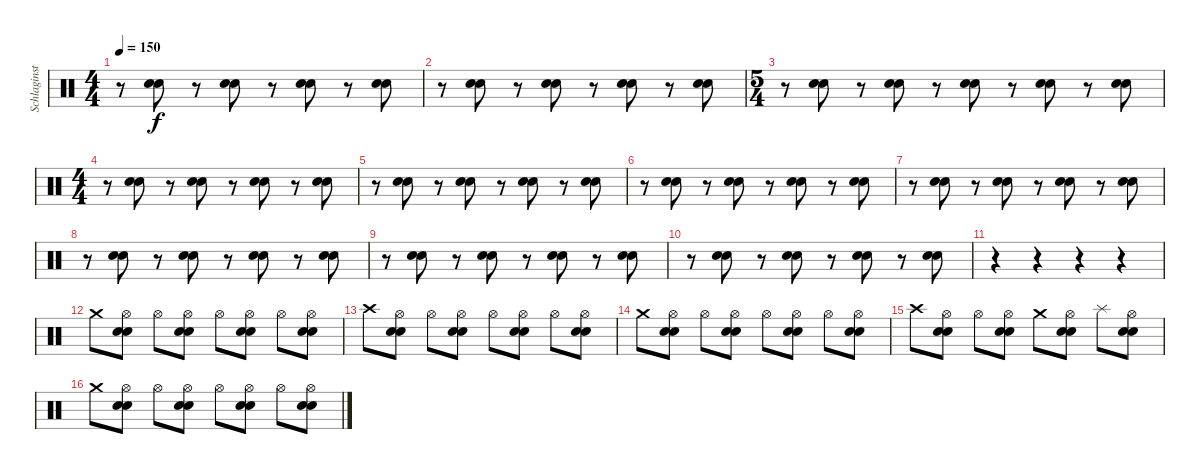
\track ("Schlaginstrumente - Auswahl" "Schlaginst") {instrument percussion}
\staff {score}
\articulation defaults
\ts (4 4)
\tempo 150
\clef neutral
\ks c
r.8{dy f} ("Electric Snare (hit)" "Electric Snare (hit)").8 r.8 ("Electric Snare (hit)" "Electric Snare (hit)").8 r.8 ("Electric Snare (hit)" "Electric Snare (hit)").8 r.8 ("Electric Snare (hit)" "Electric Snare (hit)").8 |
r.8 ("Electric Snare (hit)" "Electric Snare (hit)").8 r.8 ("Electric Snare (hit)" "Electric Snare (hit)").8 r.8 ("Electric Snare (hit)" "Electric Snare (hit)").8 r.8 ("Electric Snare (hit)" "Electric Snare (hit)").8 |
\ts (5 4)
r.8 ("Electric Snare (hit)" "Electric Snare (hit)").8 r.8 ("Electric Snare (hit)" "Electric Snare (hit)").8 r.8 ("Electric Snare (hit)" "Electric Snare (hit)").8 r.8 ("Electric Snare (hit)" "Electric Snare (hit)").8 r.8 ("Electric Snare (hit)" "Electric Snare (hit)").8 |
\ts (4 4)
r.8 ("Electric Snare (hit)" "Electric Snare (hit)").8 r.8 ("Electric Snare (hit)" "Electric Snare (hit)").8 r.8 ("Electric Snare (hit)" "Electric Snare (hit)").8 r.8 ("Electric Snare (hit)" "Electric Snare (hit)").8 |
r.8 ("Electric Snare (hit)" "Electric Snare (hit)").8 r.8 ("Electric Snare (hit)" "Electric Snare (hit)").8 r.8 ("Electric Snare (hit)" "Electric Snare (hit)").8 r.8 ("Electric Snare (hit)" "Electric Snare (hit)").8 |
r.8 ("Electric Snare (hit)" "Electric Snare (hit)").8 r.8 ("Electric Snare (hit)" "Electric Snare (hit)").8 r.8 ("Electric Snare (hit)" "Electric Snare (hit)").8 r.8 ("Electric Snare (hit)" "Electric Snare (hit)").8 |
r.8 ("Electric Snare (hit)" "Electric Snare (hit)").8 r.8 ("Electric Snare (hit)" "Electric Snare (hit)").8 r.8 ("Electric Snare (hit)" "Electric Snare (hit)").8 r.8 ("Electric Snare (hit)" "Electric Snare (hit)").8 |
r.8 ("Electric Snare (hit)" "Electric Snare (hit)").8 r.8 ("Electric Snare (hit)" "Electric Snare (hit)").8 r.8 ("Electric Snare (hit)" "Electric Snare (hit)").8 r.8 ("Electric Snare (hit)" "Electric Snare (hit)").8 |
r.8 ("Electric Snare (hit)" "Electric Snare (hit)").8 r.8 ("Electric Snare (hit)" "Electric Snare (hit)").8 r.8 ("Electric Snare (hit)" "Electric Snare (hit)").8 r.8 ("Electric Snare (hit)" "Electric Snare (hit)").8 |
r.8 ("Electric Snare (hit)" "Electric Snare (hit)").8 r.8 ("Electric Snare (hit)" "Electric Snare (hit)").8 r.8 ("Electric Snare (hit)" "Electric Snare (hit)").8 r.8 ("Electric Snare (hit)" "Electric Snare (hit)").8 |
r.4 r.4 r.4 r.4 |
"Crash medium (hit)".8 ("Hi-Hat (open)" "Electric Snare (hit)" "Electric Snare (hit)").8 "Hi-Hat (open)".8 ("Hi-Hat (open)" "Electric Snare (hit)" "Electric Snare (hit)").8 "Hi-Hat (open)".8 ("Hi-Hat (open)" "Electric Snare (hit)" "Electric Snare (hit)").8 "Hi-Hat (open)".8 ("Hi-Hat (open)" "Electric Snare (hit)" "Electric Snare (hit)").8 |
"Crash high (hit)".8 ("Hi-Hat (open)" "Electric Snare (hit)" "Electric Snare (hit)").8 "Hi-Hat (open)".8 ("Hi-Hat (open)" "Electric Snare (hit)" "Electric Snare (hit)").8 "Hi-Hat (open)".8 ("Hi-Hat (open)" "Electric Snare (hit)" "Electric Snare (hit)").8 "Hi-Hat (open)".8 ("Hi-Hat (open)" "Electric Snare (hit)" "Electric Snare (hit)").8 |
"Crash medium (hit)".8 ("Hi-Hat (open)" "Electric Snare (hit)" "Electric Snare (hit)").8 "Hi-Hat (open)".8 ("Hi-Hat (open)" "Electric Snare (hit)" "Electric Snare (hit)").8 "Hi-Hat (open)".8 ("Hi-Hat (open)" "Electric Snare (hit)" "Electric Snare (hit)").8 "Hi-Hat (open)".8 ("Hi-Hat (open)" "Electric Snare (hit)" "Electric Snare (hit)").8 |
"Crash high (hit)".8 ("Hi-Hat (open)" "Electric Snare (hit)" "Electric Snare (hit)").8 "Hi-Hat (open)".8 ("Hi-Hat (open)" "Electric Snare (hit)" "Electric Snare (hit)").8 "Crash medium (hit)".8 ("Hi-Hat (open)" "Electric Snare (hit)" "Electric Snare (hit)").8 "Splash (hit)".8 ("Hi-Hat (open)" "Electric Snare (hit)" "Electric Snare (hit)").8 |
"Crash medium (hit)".8 ("Hi-Hat (open)" "Electric Snare (hit)" "Electric Snare (hit)").8 "Hi-Hat (open)".8 ("Hi-Hat (open)" "Electric Snare (hit)" "Electric Snare (hit)").8 "Hi-Hat (open)".8 ("Hi-Hat (open)" "Electric Snare (hit)" "Electric Snare (hit)").8 "Hi-Hat (open)".8 ("Hi-Hat (open)" "Electric Snare (hit)" "Electric Snare (hit)").8
